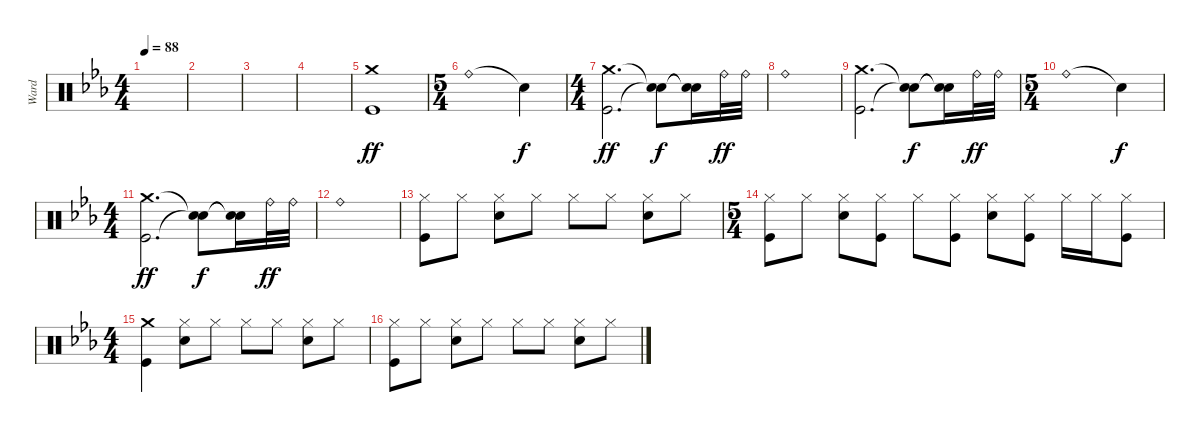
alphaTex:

\track ("Ward" "Ward") {instrument percussion}
\staff {score}
\articulation defaults
\ts (4 4)
\tempo 88
\clef neutral
\ks cminor
|
|
|
|
("Crash medium (hit)" "Kick (hit)").1{dy ff} |
\ts (5 4)
"Ride (bell)".1 "Snare (hit)"{t}.4{dy f} |
\ts (4 4)
("Crash medium (hit)" "Kick (hit)").2{d dy ff} ("Snare (hit)"{t} "Snare (hit)"{t}).8{dy f} ("Snare (hit)"{t} "Snare (hit)"{t}).16 "Ride (bell)".32{dy ff} "Ride (bell)".32 |
"Ride (bell)".1 |
("Crash medium (hit)" "Kick (hit)").2{d} ("Snare (hit)"{t} "Snare (hit)"{t}).8{dy f} ("Snare (hit)"{t} "Snare (hit)"{t}).16 "Ride (bell)".32{dy ff} "Ride (bell)".32 |
\ts (5 4)
"Ride (bell)".1 "Snare (hit)"{t}.4{dy f} |
\ts (4 4)
("Crash medium (hit)" "Kick (hit)").2{d dy ff} ("Snare (hit)"{t} "Snare (hit)"{t}).8{dy f} ("Snare (hit)"{t} "Snare (hit)"{t}).16 "Ride (bell)".32{dy ff} "Ride (bell)".32 |
"Ride (bell)".1 |
("Hi-Hat (closed)" "Kick (hit)").8 "Hi-Hat (closed)".8 ("Hi-Hat (closed)" "Snare (hit) 2").8 "Hi-Hat (closed)".8 "Hi-Hat (closed)".8 "Hi-Hat (closed)".8 ("Hi-Hat (closed)" "Snare (hit) 2").8 "Hi-Hat (closed)".8 |
\ts (5 4)
("Hi-Hat (closed)" "Kick (hit)").8 "Hi-Hat (closed)".8 ("Hi-Hat (closed)" "Snare (hit) 2").8 ("Hi-Hat (closed)" "Kick (hit)").8 "Hi-Hat (closed)".8 ("Hi-Hat (closed)" "Kick (hit)").8 ("Hi-Hat (closed)" "Snare (hit) 2").8 ("Hi-Hat (closed)" "Kick (hit)").8 "Hi-Hat (closed)".16 "Hi-Hat (closed)".16 ("Hi-Hat (closed)" "Kick (hit)").8 |
\ts (4 4)
("Crash medium (hit)" "Kick (hit)").4 ("Hi-Hat (closed)" "Snare (hit) 2").8 "Hi-Hat (closed)".8 "Hi-Hat (closed)".8 "Hi-Hat (closed)".8 ("Hi-Hat (closed)" "Snare (hit) 2").8 "Hi-Hat (closed)".8 |
("Hi-Hat (closed)" "Kick (hit)").8 "Hi-Hat (closed)".8 ("Hi-Hat (closed)" "Snare (hit) 2").8 "Hi-Hat (closed)".8 "Hi-Hat (closed)".8 "Hi-Hat (closed)".8 ("Hi-Hat (closed)" "Snare (hit) 2").8 "Hi-Hat (closed)".8
